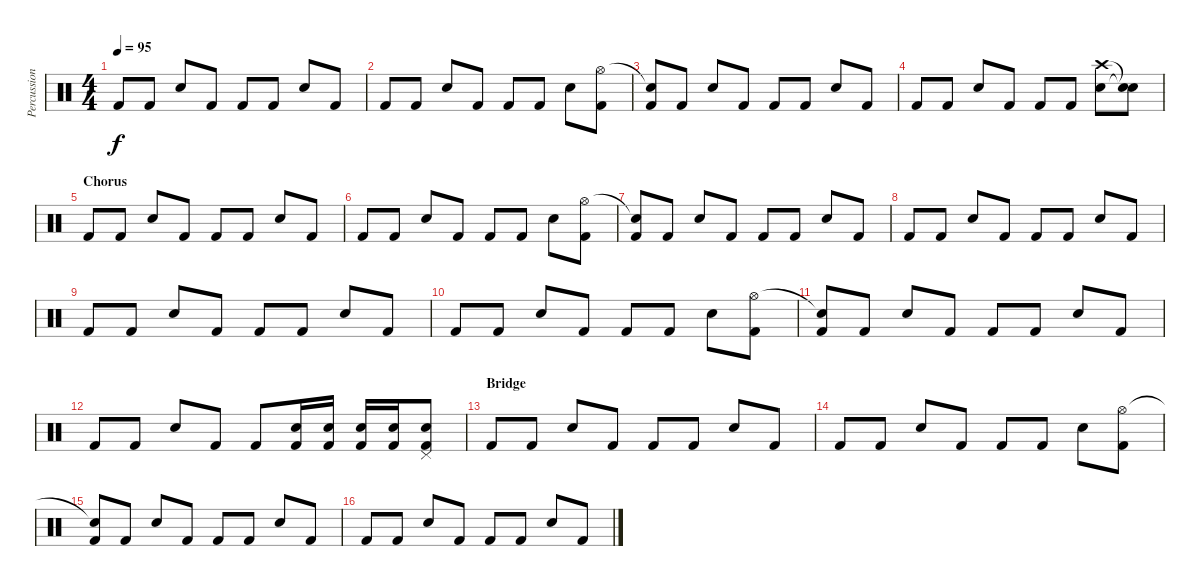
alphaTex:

\track ("Percussion" "Percussion") {instrument percussion}
\staff {score}
\articulation defaults
\ts (4 4)
\tempo 95
\clef neutral
\ks c "Kick (hit) 2".8{dy f} "Kick (hit) 2".8 "Electric Snare (hit)".8 "Kick (hit) 2".8 "Kick (hit) 2".8 "Kick (hit) 2".8 "Electric Snare (hit)".8 "Kick (hit) 2".8
|
"Kick (hit) 2".8 "Kick (hit) 2".8 "Electric Snare (hit)".8 "Kick (hit) 2".8 "Kick (hit) 2".8 "Kick (hit) 2".8 "Electric Snare (hit)".8 ("Hi-Hat (open)" "Kick (hit) 2").8 |
("Snare (hit)"{t} "Kick (hit) 2").8 "Kick (hit) 2".8 "Electric Snare (hit)".8 "Kick (hit) 2".8 "Kick (hit) 2".8 "Kick (hit) 2".8 "Electric Snare (hit)".8 "Kick (hit) 2".8 |
"Kick (hit) 2".8 "Kick (hit) 2".8 "Electric Snare (hit)".8 "Kick (hit) 2".8 "Kick (hit) 2".8 "Kick (hit) 2".8 ("Crash high (hit)" "Electric Snare (hit)").8 ("Snare (hit)"{t} "Snare (hit)"{t}).8 |
\section ("" "Chorus")
"Kick (hit) 2".8 "Kick (hit) 2".8 "Electric Snare (hit)".8 "Kick (hit) 2".8 "Kick (hit) 2".8 "Kick (hit) 2".8 "Electric Snare (hit)".8 "Kick (hit) 2".8 |
"Kick (hit) 2".8 "Kick (hit) 2".8 "Electric Snare (hit)".8 "Kick (hit) 2".8 "Kick (hit) 2".8 "Kick (hit) 2".8 "Electric Snare (hit)".8 ("Hi-Hat (open)" "Kick (hit) 2").8 |
("Snare (hit)"{t} "Kick (hit) 2").8 "Kick (hit) 2".8 "Electric Snare (hit)".8 "Kick (hit) 2".8 "Kick (hit) 2".8 "Kick (hit) 2".8 "Electric Snare (hit)".8 "Kick (hit) 2".8 |
"Kick (hit) 2".8 "Kick (hit) 2".8 "Electric Snare (hit)".8 "Kick (hit) 2".8 "Kick (hit) 2".8 "Kick (hit) 2".8 "Electric Snare (hit)".8 "Kick (hit) 2".8 |
"Kick (hit) 2".8 "Kick (hit) 2".8 "Electric Snare (hit)".8 "Kick (hit) 2".8 "Kick (hit) 2".8 "Kick (hit) 2".8 "Electric Snare (hit)".8 "Kick (hit) 2".8 |
"Kick (hit) 2".8 "Kick (hit) 2".8 "Electric Snare (hit)".8 "Kick (hit) 2".8 "Kick (hit) 2".8 "Kick (hit) 2".8 "Electric Snare (hit)".8 ("Hi-Hat (open)" "Kick (hit) 2").8 |
("Snare (hit)"{t} "Kick (hit) 2").8 "Kick (hit) 2".8 "Electric Snare (hit)".8 "Kick (hit) 2".8 "Kick (hit) 2".8 "Kick (hit) 2".8 "Electric Snare (hit)".8 "Kick (hit) 2".8 |
"Kick (hit) 2".8 "Kick (hit) 2".8 "Electric Snare (hit)".8 "Kick (hit) 2".8 "Kick (hit) 2".8 ("Electric Snare (hit)" "Kick (hit) 2").16 ("Electric Snare (hit)" "Kick (hit) 2").16 ("Electric Snare (hit)" "Kick (hit) 2").16 ("Electric Snare (hit)" "Kick (hit) 2").16 ("Pedal Hi-Hat (hit)" "Electric Snare (hit)" "Kick (hit) 2").8 |
\section ("" "Bridge")
"Kick (hit) 2".8 "Kick (hit) 2".8 "Electric Snare (hit)".8 "Kick (hit) 2".8 "Kick (hit) 2".8 "Kick (hit) 2".8 "Electric Snare (hit)".8 "Kick (hit) 2".8 |
"Kick (hit) 2".8 "Kick (hit) 2".8 "Electric Snare (hit)".8 "Kick (hit) 2".8 "Kick (hit) 2".8 "Kick (hit) 2".8 "Electric Snare (hit)".8 ("Hi-Hat (open)" "Kick (hit) 2").8 |
("Snare (hit)"{t} "Kick (hit) 2").8 "Kick (hit) 2".8 "Electric Snare (hit)".8 "Kick (hit) 2".8 "Kick (hit) 2".8 "Kick (hit) 2".8 "Electric Snare (hit)".8 "Kick (hit) 2".8 |
"Kick (hit) 2".8 "Kick (hit) 2".8 "Electric Snare (hit)".8 "Kick (hit) 2".8 "Kick (hit) 2".8 "Kick (hit) 2".8 "Electric Snare (hit)".8 "Kick (hit) 2".8
